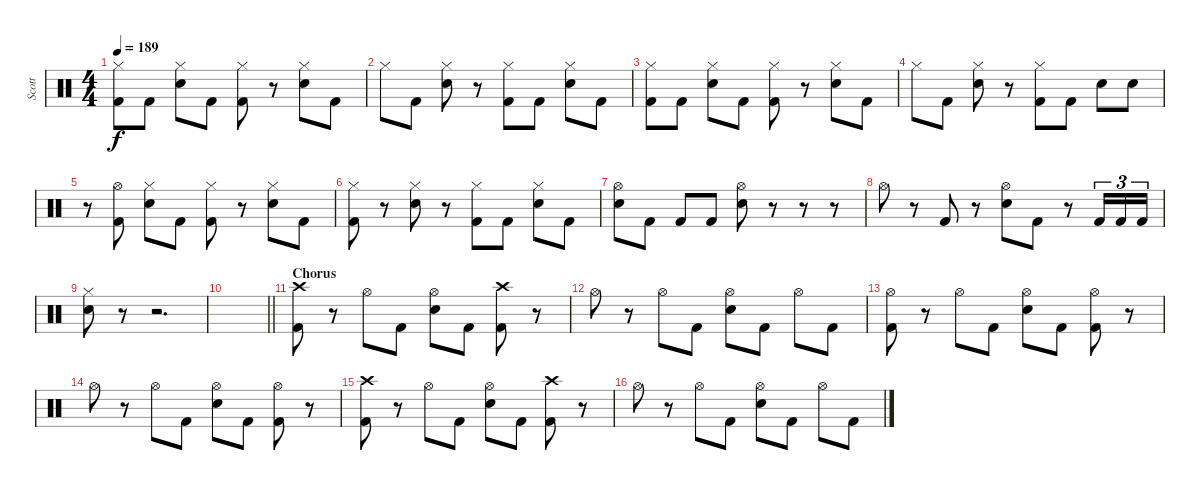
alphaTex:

\track ("Scott" "Scott") {instrument percussion}
\staff {score}
\articulation defaults
\ts (4 4)
\tempo 189
\clef neutral
\ks c
("Hi-Hat (closed)" "Kick (hit) 2").8{dy f} "Kick (hit) 2".8 ("Hi-Hat (closed)" "Electric Snare (hit)").8 "Kick (hit) 2".8 ("Hi-Hat (closed)" "Kick (hit) 2").8 r.8 ("Hi-Hat (closed)" "Electric Snare (hit)").8 "Kick (hit) 2".8 |
"Hi-Hat (closed)".8 "Kick (hit) 2".8 ("Hi-Hat (closed)" "Electric Snare (hit)").8 r.8 ("Hi-Hat (closed)" "Kick (hit) 2").8 "Kick (hit) 2".8 ("Hi-Hat (closed)" "Electric Snare (hit)").8 "Kick (hit) 2".8 |
("Hi-Hat (closed)" "Kick (hit) 2").8 "Kick (hit) 2".8 ("Hi-Hat (closed)" "Electric Snare (hit)").8 "Kick (hit) 2".8 ("Hi-Hat (closed)" "Kick (hit) 2").8 r.8 ("Hi-Hat (closed)" "Electric Snare (hit)").8 "Kick (hit) 2".8 |
"Hi-Hat (closed)".8 "Kick (hit) 2".8 ("Hi-Hat (closed)" "Electric Snare (hit)").8 r.8 ("Hi-Hat (closed)" "Kick (hit) 2").8 "Kick (hit) 2".8 "Electric Snare (hit)".8 "Electric Snare (hit)".8 |
r.8 ("Hi-Hat (open)" "Kick (hit) 2").8 ("Hi-Hat (closed)" "Electric Snare (hit)").8 "Kick (hit) 2".8 ("Hi-Hat (closed)" "Kick (hit) 2").8 r.8 ("Hi-Hat (closed)" "Electric Snare (hit)").8 "Kick (hit) 2".8 |
("Hi-Hat (closed)" "Kick (hit) 2").8 r.8 ("Hi-Hat (closed)" "Electric Snare (hit)").8 r.8 ("Hi-Hat (closed)" "Kick (hit) 2").8 "Kick (hit) 2".8 ("Hi-Hat (closed)" "Electric Snare (hit)").8 "Kick (hit) 2".8 |
("Hi-Hat (open)" "Electric Snare (hit)").8 "Kick (hit) 2".8 "Kick (hit) 2".8 "Kick (hit) 2".8 ("Hi-Hat (open)" "Electric Snare (hit)").8 r.8 r.8 r.8 |
"Hi-Hat (open)".8 r.8 "Kick (hit) 2".8 r.8 ("Hi-Hat (open)" "Electric Snare (hit)").8 "Kick (hit) 2".8 r.8 "Kick (hit) 2".16{tu (3 2)} "Kick (hit) 2".16{tu (3 2)} "Kick (hit) 2".16{tu (3 2)} |
("Hi-Hat (closed)" "Electric Snare (hit)").8 r.8 r.2{d} |
\barLineRight lightlight
|
\section ("" "Chorus")
("Crash high (hit)" "Kick (hit) 2").8 r.8 "Hi-Hat (open)".8 "Kick (hit) 2".8 ("Hi-Hat (open)" "Electric Snare (hit)").8 "Kick (hit) 2".8 ("Crash high (hit)" "Kick (hit) 2").8 r.8 |
"Hi-Hat (open)".8 r.8 "Hi-Hat (open)".8 "Kick (hit) 2".8 ("Hi-Hat (open)" "Electric Snare (hit)").8 "Kick (hit) 2".8 "Hi-Hat (open)".8 "Kick (hit) 2".8 |
("Hi-Hat (open)" "Kick (hit) 2").8 r.8 "Hi-Hat (open)".8 "Kick (hit) 2".8 ("Hi-Hat (open)" "Electric Snare (hit)").8 "Kick (hit) 2".8 ("Hi-Hat (open)" "Kick (hit) 2").8 r.8 |
"Hi-Hat (open)".8 r.8 "Hi-Hat (open)".8 "Kick (hit) 2".8 ("Hi-Hat (open)" "Electric Snare (hit)").8 "Kick (hit) 2".8 ("Hi-Hat (open)" "Kick (hit) 2").8 r.8 |
("Crash high (hit)" "Kick (hit) 2").8 r.8 "Hi-Hat (open)".8 "Kick (hit) 2".8 ("Hi-Hat (open)" "Electric Snare (hit)").8 "Kick (hit) 2".8 ("Crash high (hit)" "Kick (hit) 2").8 r.8 |
"Hi-Hat (open)".8 r.8 "Hi-Hat (open)".8 "Kick (hit) 2".8 ("Hi-Hat (open)" "Electric Snare (hit)").8 "Kick (hit) 2".8 "Hi-Hat (open)".8 "Kick (hit) 2".8
